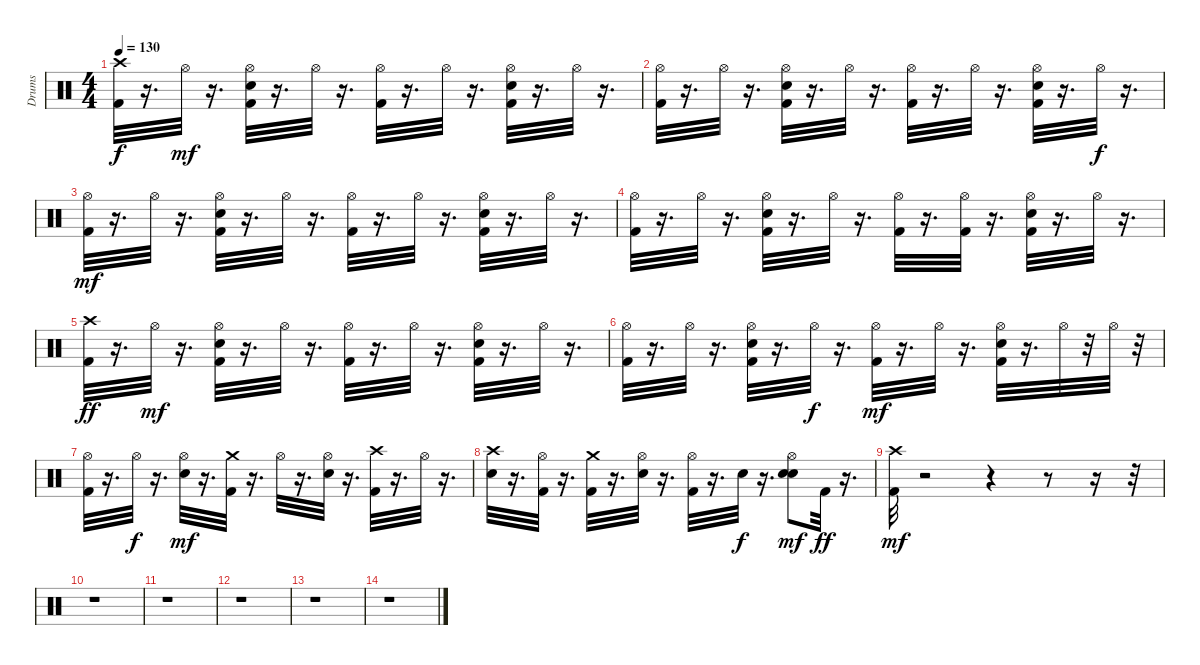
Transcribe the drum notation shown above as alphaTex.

\track ("Drums" "Drums") {instrument percussion}
\staff {score}
\articulation defaults
\ts (4 4)
\tempo 130
\clef neutral
\ks c
("Kick (hit) 2" "Crash high (hit)").32{dy f} r.16{d} "Hi-Hat (open)".32{dy mf} r.16{d} ("Kick (hit) 2" "Electric Snare (hit)" "Hi-Hat (open)").32 r.16{d} "Hi-Hat (open)".32 r.16{d} ("Kick (hit) 2" "Hi-Hat (open)").32 r.16{d} "Hi-Hat (open)".32 r.16{d} ("Kick (hit) 2" "Electric Snare (hit)" "Hi-Hat (open)").32 r.16{d} "Hi-Hat (open)".32 r.16{d} |
("Kick (hit) 2" "Hi-Hat (open)").32 r.16{d} "Hi-Hat (open)".32 r.16{d} ("Kick (hit) 2" "Electric Snare (hit)" "Hi-Hat (open)").32 r.16{d} "Hi-Hat (open)".32 r.16{d} ("Kick (hit) 2" "Hi-Hat (open)").32 r.16{d} "Hi-Hat (open)".32 r.16{d} ("Kick (hit) 2" "Electric Snare (hit)" "Hi-Hat (open)").32 r.16{d} "Hi-Hat (open)".32{dy f} r.16{d} |
("Kick (hit) 2" "Hi-Hat (open)").32{dy mf} r.16{d} "Hi-Hat (open)".32 r.16{d} ("Kick (hit) 2" "Electric Snare (hit)" "Hi-Hat (open)").32 r.16{d} "Hi-Hat (open)".32 r.16{d} ("Kick (hit) 2" "Hi-Hat (open)").32 r.16{d} "Hi-Hat (open)".32 r.16{d} ("Kick (hit) 2" "Electric Snare (hit)" "Hi-Hat (open)").32 r.16{d} "Hi-Hat (open)".32 r.16{d} |
("Kick (hit) 2" "Hi-Hat (open)").32 r.16{d} "Hi-Hat (open)".32 r.16{d} ("Kick (hit) 2" "Electric Snare (hit)" "Hi-Hat (open)").32 r.16{d} "Hi-Hat (open)".32 r.16{d} ("Kick (hit) 2" "Hi-Hat (open)").32 r.16{d} ("Kick (hit) 2" "Hi-Hat (open)").32 r.16{d} ("Kick (hit) 2" "Electric Snare (hit)" "Hi-Hat (open)").32 r.16{d} "Hi-Hat (open)".32 r.16{d} |
("Kick (hit) 2" "Crash high (hit)").32{dy ff} r.16{d} "Hi-Hat (open)".32{dy mf} r.16{d} ("Kick (hit) 2" "Electric Snare (hit)" "Hi-Hat (open)").32 r.16{d} "Hi-Hat (open)".32 r.16{d} ("Kick (hit) 2" "Hi-Hat (open)").32 r.16{d} "Hi-Hat (open)".32 r.16{d} ("Kick (hit) 2" "Electric Snare (hit)" "Hi-Hat (open)").32 r.16{d} "Hi-Hat (open)".32 r.16{d} |
("Kick (hit) 2" "Hi-Hat (open)").32 r.16{d} "Hi-Hat (open)".32 r.16{d} ("Kick (hit) 2" "Electric Snare (hit)" "Hi-Hat (open)").32 r.16{d} "Hi-Hat (open)".32{dy f} r.16{d} ("Kick (hit) 2" "Hi-Hat (open)").32{dy mf} r.16{d} "Hi-Hat (open)".32 r.16{d} ("Kick (hit) 2" "Electric Snare (hit)" "Hi-Hat (open)").32 r.16{d} "Hi-Hat (open)".32 r.32 "Hi-Hat (open)".32 r.32 |
("Kick (hit) 2" "Hi-Hat (open)").32 r.16{d} "Hi-Hat (open)".32{dy f} r.16{d} ("Electric Snare (hit)" "Hi-Hat (open)").32{dy mf} r.16{d} ("Kick (hit) 2" "Crash medium (hit)").32 r.16{d} "Hi-Hat (open)".32 r.16{d} ("Electric Snare (hit)" "Hi-Hat (open)").32 r.16{d} ("Kick (hit) 2" "Crash high (hit)").32 r.16{d} "Hi-Hat (open)".32 r.16{d} |
("Electric Snare (hit)" "Crash high (hit)").32 r.16{d} ("Kick (hit) 2" "Hi-Hat (open)").32 r.16{d} ("Kick (hit) 2" "Crash medium (hit)").32 r.16{d} ("Electric Snare (hit)" "Hi-Hat (open)").32 r.16{d} ("Kick (hit) 2" "Hi-Hat (open)").32 r.16{d} "Electric Snare (hit)".32{dy f} r.16{d} ("Electric Snare (hit)" "Electric Snare (hit)" "Hi-Hat (open)").8{dy mf} "Kick (hit) 2".32{dy ff} r.16{d} |
("Kick (hit) 2" "Crash high (hit)").32{dy mf} r.2 r.4 r.8 r.16 r.32 |
r.1 |
r.1 |
r.1 |
r.1 |
r.1
